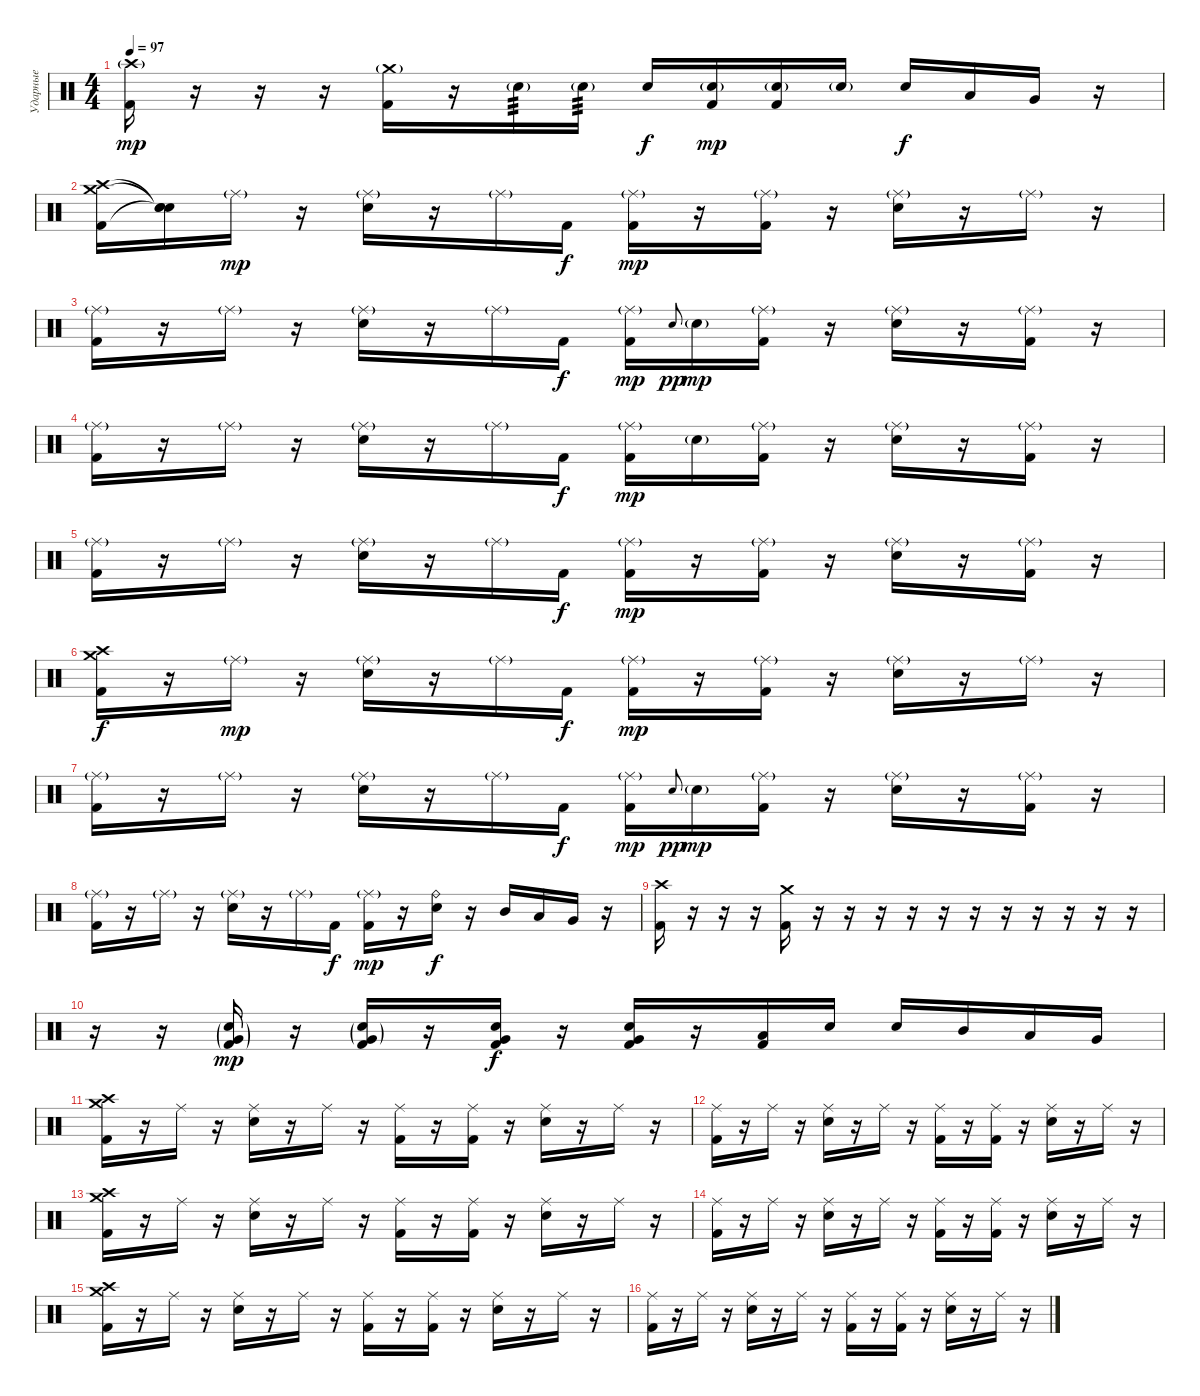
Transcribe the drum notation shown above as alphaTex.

\track ("Ударные" "Ударные") {instrument percussion}
\staff {score}
\articulation defaults
\ts (4 4)
\tempo 97
\clef neutral
\ks c
("Crash high (hit)"{g} "Kick (hit) 2").16{dy mp} r.16 r.16 r.16 ("Crash medium (hit)"{g} "Kick (hit) 2").16 r.16 "Electric Snare (hit)"{g}.16{tp 3} "Electric Snare (hit)"{g}.16{tp 3} "Electric Snare (hit)".16{dy f} ("Electric Snare (hit)"{g} "Kick (hit) 2").16{dy mp} ("Electric Snare (hit)"{g} "Kick (hit) 2").16 "Electric Snare (hit)"{g}.16 "Electric Snare (hit)".16{dy f} "Low Tom (hit)".16 "Very Low Tom (hit)".16 r.16 |
("Crash high (hit)" "Crash medium (hit)" "Kick (hit) 2").16 ("Snare (hit)"{t} "Snare (hit)"{t} "Snare (hit)"{t}).16 "Ride (middle)"{g}.16{dy mp} r.16 ("Ride (middle)"{g} "Electric Snare (hit)").16 r.16 "Ride (middle)"{g}.16 "Kick (hit) 2".16{dy f} ("Ride (middle)"{g} "Kick (hit) 2").16{dy mp} r.16 ("Ride (middle)"{g} "Kick (hit) 2").16 r.16 ("Ride (middle)"{g} "Electric Snare (hit)").16 r.16 "Ride (middle)"{g}.16 r.16 |
("Ride (middle)"{g} "Kick (hit) 2").16 r.16 "Ride (middle)"{g}.16 r.16 ("Ride (middle)"{g} "Electric Snare (hit)").16 r.16 "Ride (middle)"{g}.16 "Kick (hit) 2".16{dy f} ("Ride (middle)"{g} "Kick (hit) 2").16{dy mp} "Electric Snare (hit)"{sl x}.8{gr onbeat dy pp} "Electric Snare (hit)"{g}.16{dy mp} ("Ride (middle)"{g} "Kick (hit) 2").16 r.16 ("Ride (middle)"{g} "Electric Snare (hit)").16 r.16 ("Ride (middle)"{g} "Kick (hit) 2").16 r.16 |
("Ride (middle)"{g} "Kick (hit) 2").16 r.16 "Ride (middle)"{g}.16 r.16 ("Ride (middle)"{g} "Electric Snare (hit)").16 r.16 "Ride (middle)"{g}.16 "Kick (hit) 2".16{dy f} ("Ride (middle)"{g} "Kick (hit) 2").16{dy mp} "Electric Snare (hit)"{g}.16 ("Ride (middle)"{g} "Kick (hit) 2").16 r.16 ("Ride (middle)"{g} "Electric Snare (hit)").16 r.16 ("Ride (middle)"{g} "Kick (hit) 2").16 r.16 |
("Ride (middle)"{g} "Kick (hit) 2").16 r.16 "Ride (middle)"{g}.16 r.16 ("Ride (middle)"{g} "Electric Snare (hit)").16 r.16 "Ride (middle)"{g}.16 "Kick (hit) 2".16{dy f} ("Ride (middle)"{g} "Kick (hit) 2").16{dy mp} r.16 ("Ride (middle)"{g} "Kick (hit) 2").16 r.16 ("Ride (middle)"{g} "Electric Snare (hit)").16 r.16 ("Ride (middle)"{g} "Kick (hit) 2").16 r.16 |
("Crash high (hit)" "Crash medium (hit)" "Kick (hit) 2").16{dy f} r.16 "Ride (middle)"{g}.16{dy mp} r.16 ("Ride (middle)"{g} "Electric Snare (hit)").16 r.16 "Ride (middle)"{g}.16 "Kick (hit) 2".16{dy f} ("Ride (middle)"{g} "Kick (hit) 2").16{dy mp} r.16 ("Ride (middle)"{g} "Kick (hit) 2").16 r.16 ("Ride (middle)"{g} "Electric Snare (hit)").16 r.16 "Ride (middle)"{g}.16 r.16 |
("Ride (middle)"{g} "Kick (hit) 2").16 r.16 "Ride (middle)"{g}.16 r.16 ("Ride (middle)"{g} "Electric Snare (hit)").16 r.16 "Ride (middle)"{g}.16 "Kick (hit) 2".16{dy f} ("Ride (middle)"{g} "Kick (hit) 2").16{dy mp} "Electric Snare (hit)"{sl x}.8{gr onbeat dy pp} "Electric Snare (hit)"{g}.16{dy mp} ("Ride (middle)"{g} "Kick (hit) 2").16 r.16 ("Ride (middle)"{g} "Electric Snare (hit)").16 r.16 ("Ride (middle)"{g} "Kick (hit) 2").16 r.16 |
("Ride (middle)"{g} "Kick (hit) 2").16 r.16 "Ride (middle)"{g}.16 r.16 ("Ride (middle)"{g} "Electric Snare (hit)").16 r.16 "Ride (middle)"{g}.16 "Kick (hit) 2".16{dy f} ("Ride (middle)"{g} "Kick (hit) 2").16{dy mp} r.16 ("Ride (bell)" "Electric Snare (hit)").16{dy f} r.16 "Mid Tom (hit)".16 "Low Tom (hit)".16 "Very Low Tom (hit)".16 r.16 |
("Crash high (hit)" "Kick (hit) 2").16 r.16 r.16 r.16 ("Crash medium (hit)" "Kick (hit) 2").16 r.16 r.16 r.16 r.16 r.16 r.16 r.16 r.16 r.16 r.16 r.16 |
r.16 r.16 ("Very Low Tom (hit)"{g} "Electric Snare (hit)"{g} "Kick (hit) 2"{g}).16{dy mp} r.16 ("Very Low Tom (hit)"{g} "Electric Snare (hit)"{g} "Kick (hit) 2").16 r.16 ("Very Low Tom (hit)" "Electric Snare (hit)" "Kick (hit) 2").16{dy f} r.16 ("Very Low Tom (hit)" "Electric Snare (hit)" "Kick (hit) 2").16 r.16 ("Low Tom (hit)" "Kick (hit) 2").16 "Electric Snare (hit)".16 "Electric Snare (hit)".16 "Mid Tom (hit)".16 "Low Tom (hit)".16 "Very Low Tom (hit)".16 |
("Crash high (hit)" "Crash medium (hit)" "Kick (hit) 2").16 r.16 "Ride (middle)".16 r.16 ("Ride (middle)" "Electric Snare (hit)").16 r.16 "Ride (middle)".16 r.16 ("Ride (middle)" "Kick (hit) 2").16 r.16 ("Ride (middle)" "Kick (hit) 2").16 r.16 ("Ride (middle)" "Electric Snare (hit)").16 r.16 "Ride (middle)".16 r.16 |
("Ride (middle)" "Kick (hit) 2").16 r.16 "Ride (middle)".16 r.16 ("Ride (middle)" "Electric Snare (hit)").16 r.16 "Ride (middle)".16 r.16 ("Ride (middle)" "Kick (hit) 2").16 r.16 ("Ride (middle)" "Kick (hit) 2").16 r.16 ("Ride (middle)" "Electric Snare (hit)").16 r.16 "Ride (middle)".16 r.16 |
("Crash high (hit)" "Crash medium (hit)" "Kick (hit) 2").16 r.16 "Ride (middle)".16 r.16 ("Ride (middle)" "Electric Snare (hit)").16 r.16 "Ride (middle)".16 r.16 ("Ride (middle)" "Kick (hit) 2").16 r.16 ("Ride (middle)" "Kick (hit) 2").16 r.16 ("Ride (middle)" "Electric Snare (hit)").16 r.16 "Ride (middle)".16 r.16 |
("Ride (middle)" "Kick (hit) 2").16 r.16 "Ride (middle)".16 r.16 ("Ride (middle)" "Electric Snare (hit)").16 r.16 "Ride (middle)".16 r.16 ("Ride (middle)" "Kick (hit) 2").16 r.16 ("Ride (middle)" "Kick (hit) 2").16 r.16 ("Ride (middle)" "Electric Snare (hit)").16 r.16 "Ride (middle)".16 r.16 |
("Crash high (hit)" "Crash medium (hit)" "Kick (hit) 2").16 r.16 "Ride (middle)".16 r.16 ("Ride (middle)" "Electric Snare (hit)").16 r.16 "Ride (middle)".16 r.16 ("Ride (middle)" "Kick (hit) 2").16 r.16 ("Ride (middle)" "Kick (hit) 2").16 r.16 ("Ride (middle)" "Electric Snare (hit)").16 r.16 "Ride (middle)".16 r.16 |
("Ride (middle)" "Kick (hit) 2").16 r.16 "Ride (middle)".16 r.16 ("Ride (middle)" "Electric Snare (hit)").16 r.16 "Ride (middle)".16 r.16 ("Ride (middle)" "Kick (hit) 2").16 r.16 ("Ride (middle)" "Kick (hit) 2").16 r.16 ("Ride (middle)" "Electric Snare (hit)").16 r.16 "Ride (middle)".16 r.16
